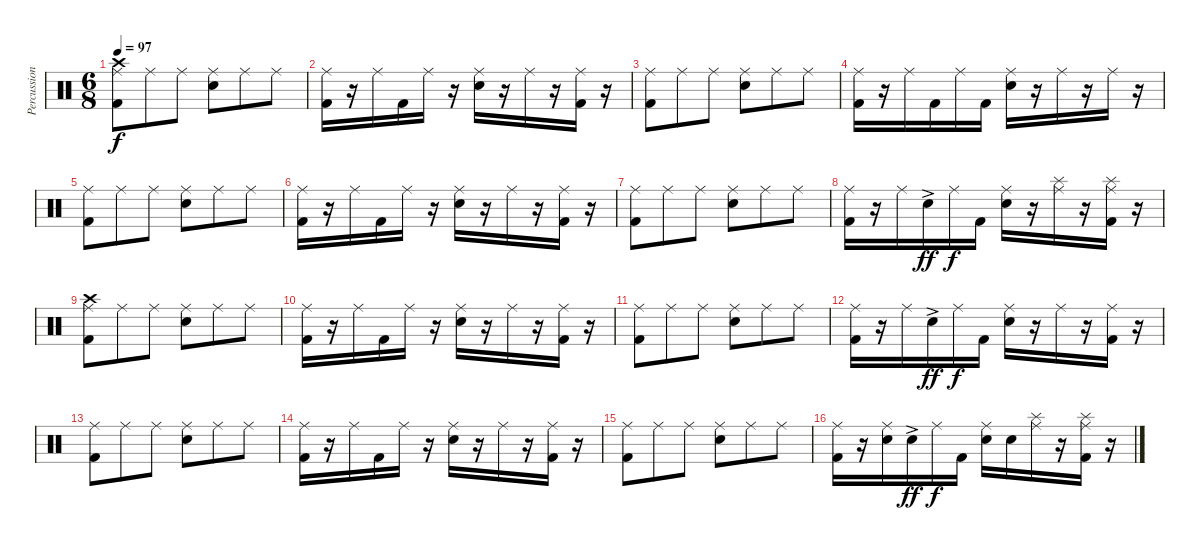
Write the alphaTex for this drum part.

\track ("Percussion" "Percussion") {instrument percussion}
\staff {score}
\articulation defaults
\ts (6 8)
\tempo 97
\clef neutral
\ks c
("Crash high (hit)" "Ride (middle)" "Kick (hit) 2").8{dy f} "Ride (middle)".8 "Ride (middle)".8 ("Ride (middle)" "Electric Snare (hit)").8 "Ride (middle)".8 "Ride (middle)".8 |
("Ride (middle)" "Kick (hit) 2").16 r.16 "Ride (middle)".16 "Kick (hit) 2".16 "Ride (middle)".16 r.16 ("Ride (middle)" "Electric Snare (hit)").16 r.16 "Ride (middle)".16 r.16 ("Ride (middle)" "Kick (hit) 2").16 r.16 |
("Ride (middle)" "Kick (hit) 2").8 "Ride (middle)".8 "Ride (middle)".8 ("Ride (middle)" "Electric Snare (hit)").8 "Ride (middle)".8 "Ride (middle)".8 |
("Ride (middle)" "Kick (hit) 2").16 r.16 "Ride (middle)".16 "Kick (hit) 2".16 "Ride (middle)".16 "Kick (hit) 2".16 ("Ride (middle)" "Electric Snare (hit)").16 r.16 "Ride (middle)".16 r.16 "Ride (middle)".16 r.16 |
("Ride (middle)" "Kick (hit) 2").8 "Ride (middle)".8 "Ride (middle)".8 ("Ride (middle)" "Electric Snare (hit)").8 "Ride (middle)".8 "Ride (middle)".8 |
("Ride (middle)" "Kick (hit) 2").16 r.16 "Ride (middle)".16 "Kick (hit) 2".16 "Ride (middle)".16 r.16 ("Ride (middle)" "Electric Snare (hit)").16 r.16 "Ride (middle)".16 r.16 ("Ride (middle)" "Kick (hit) 2").16 r.16 |
("Ride (middle)" "Kick (hit) 2").8 "Ride (middle)".8 "Ride (middle)".8 ("Ride (middle)" "Electric Snare (hit)").8 "Ride (middle)".8 "Ride (middle)".8 |
("Ride (middle)" "Kick (hit) 2").16 r.16 "Ride (middle)".16 "Electric Snare (hit)"{ac}.16{dy ff} "Ride (middle)".16{dy f} "Kick (hit) 2".16 ("Ride (middle)" "Electric Snare (hit)").16 r.16 ("Splash (hit)" "Ride (middle)").16 r.16 ("Splash (hit)" "Ride (middle)" "Kick (hit) 2").16 r.16 |
("Crash high (hit)" "Ride (middle)" "Kick (hit) 2").8 "Ride (middle)".8 "Ride (middle)".8 ("Ride (middle)" "Electric Snare (hit)").8 "Ride (middle)".8 "Ride (middle)".8 |
("Ride (middle)" "Kick (hit) 2").16 r.16 "Ride (middle)".16 "Kick (hit) 2".16 "Ride (middle)".16 r.16 ("Ride (middle)" "Electric Snare (hit)").16 r.16 "Ride (middle)".16 r.16 ("Ride (middle)" "Kick (hit) 2").16 r.16 |
("Ride (middle)" "Kick (hit) 2").8 "Ride (middle)".8 "Ride (middle)".8 ("Ride (middle)" "Electric Snare (hit)").8 "Ride (middle)".8 "Ride (middle)".8 |
("Ride (middle)" "Kick (hit) 2").16 r.16 "Ride (middle)".16 "Electric Snare (hit)"{ac}.16{dy ff} "Ride (middle)".16{dy f} "Kick (hit) 2".16 ("Ride (middle)" "Electric Snare (hit)").16 r.16 "Ride (middle)".16 r.16 ("Ride (middle)" "Kick (hit) 2").16 r.16 |
("Ride (middle)" "Kick (hit) 2").8 "Ride (middle)".8 "Ride (middle)".8 ("Ride (middle)" "Electric Snare (hit)").8 "Ride (middle)".8 "Ride (middle)".8 |
("Ride (middle)" "Kick (hit) 2").16 r.16 "Ride (middle)".16 "Kick (hit) 2".16 "Ride (middle)".16 r.16 ("Ride (middle)" "Electric Snare (hit)").16 r.16 "Ride (middle)".16 r.16 ("Ride (middle)" "Kick (hit) 2").16 r.16 |
("Ride (middle)" "Kick (hit) 2").8 "Ride (middle)".8 "Ride (middle)".8 ("Ride (middle)" "Electric Snare (hit)").8 "Ride (middle)".8 "Ride (middle)".8 |
("Ride (middle)" "Kick (hit) 2").16 r.16 ("Ride (middle)" "Electric Snare (hit)").16 "Electric Snare (hit)"{ac}.16{dy ff} "Ride (middle)".16{dy f} "Kick (hit) 2".16 ("Ride (middle)" "Electric Snare (hit)").16 "Electric Snare (hit)".16 ("Splash (hit)" "Ride (middle)").16 r.16 ("Splash (hit)" "Ride (middle)" "Kick (hit) 2").16 r.16
